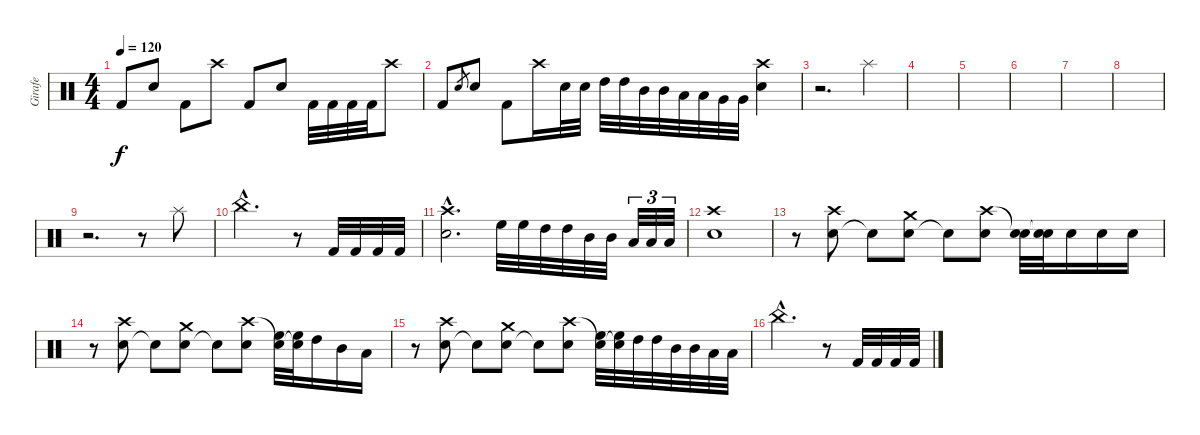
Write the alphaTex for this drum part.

\track ("Girafe" "Girafe") {instrument percussion}
\staff {score}
\articulation defaults
\ts (4 4)
\tempo 120
\clef neutral
\ks c "Kick (hit) 2".8{dy f} "Electric Snare (hit)".8 "Kick (hit) 2".8 "Crash high (hit)".8 "Kick (hit) 2".8 "Electric Snare (hit)".8 "Kick (hit) 2".32 "Kick (hit) 2".32 "Kick (hit) 2".32 "Kick (hit) 2".32 "Crash high (hit)".8
|
"Kick (hit) 2".8 "Electric Snare (hit)".8{gr} "Electric Snare (hit)".8 "Kick (hit) 2".8 "Crash high (hit)".16 "Electric Snare (hit)".32 "Electric Snare (hit)".32 "High Tom (hit)".32 "High Tom (hit)".32 "Mid Tom (hit)".32 "Mid Tom (hit)".32 "Low Tom (hit)".32 "Low Tom (hit)".32 "Very Low Tom (hit)".32 "Very Low Tom (hit)".32 ("Electric Snare (hit)" "Crash high (hit)").4 |
r.2{d} "Splash (hit)".4 |
|
|
|
|
|
r.2{d} r.8 "Splash (hit)".8 |
"China (hit)"{hac}.2{d} r.8 "Kick (hit) 2".32 "Kick (hit) 2".32 "Kick (hit) 2".32 "Kick (hit) 2".32 |
("Electric Snare (hit)"{hac} "Crash high (hit)"{hac}).2{d} "High Floor Tom (hit)".32 "High Floor Tom (hit)".32 "High Tom (hit)".32 "High Tom (hit)".32 "Mid Tom (hit)".32 "Mid Tom (hit)".32 "Low Tom (hit)".32{tu (3 2)} "Low Tom (hit)".32{tu (3 2)} "Low Tom (hit)".32{tu (3 2)} |
("Electric Snare (hit)" "Crash high (hit)").1 |
r.8 ("Electric Snare (hit)" "Crash high (hit)").8 "Snare (hit)"{t}.8 ("Electric Snare (hit)" "Crash medium (hit)").8 "Snare (hit)"{t}.8 ("Electric Snare (hit)" "Crash high (hit)").8 ("Electric Snare (hit)" "Snare (hit)"{t}).32 ("Electric Snare (hit)" "Snare (hit)"{t}).32 "Electric Snare (hit)".16 "Electric Snare (hit)".16 "Electric Snare (hit)".16 |
r.8 ("Electric Snare (hit)" "Crash high (hit)").8 "Snare (hit)"{t}.8 ("Electric Snare (hit)" "Crash medium (hit)").8 "Snare (hit)"{t}.8 ("Electric Snare (hit)" "Crash high (hit)").8 ("High Floor Tom (hit)" "Snare (hit)"{t}).32 ("High Floor Tom (hit)" "Snare (hit)"{t}).32 "High Tom (hit)".16 "Mid Tom (hit)".16 "Low Tom (hit)".16 |
r.8 ("Electric Snare (hit)" "Crash high (hit)").8 "Snare (hit)"{t}.8 ("Electric Snare (hit)" "Crash medium (hit)").8 "Snare (hit)"{t}.8 ("Electric Snare (hit)" "Crash high (hit)").8 ("High Floor Tom (hit)" "Snare (hit)"{t}).32 ("High Floor Tom (hit)" "Snare (hit)"{t}).32 "High Tom (hit)".32 "High Tom (hit)".32 "Mid Tom (hit)".32 "Mid Tom (hit)".32 "Low Tom (hit)".32 "Low Tom (hit)".32 |
"China (hit)"{hac}.2{d} r.8 "Kick (hit) 2".32 "Kick (hit) 2".32 "Kick (hit) 2".32 "Kick (hit) 2".32
